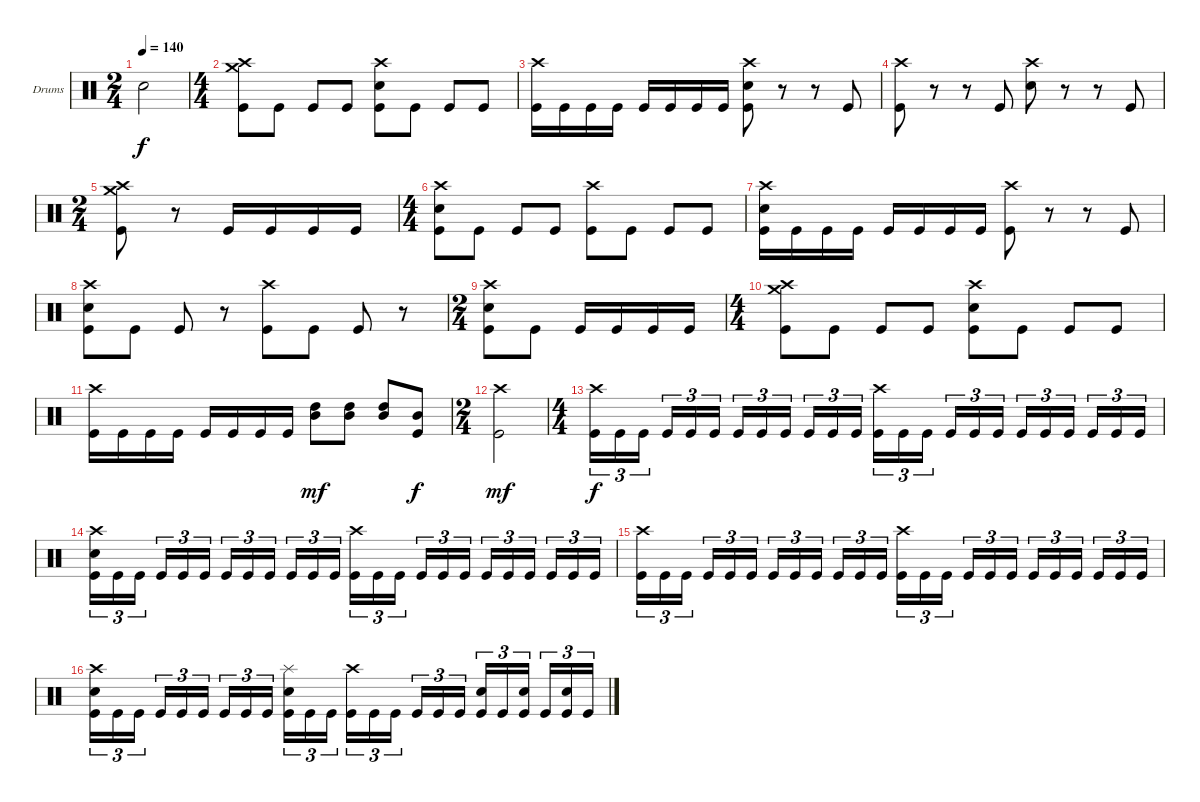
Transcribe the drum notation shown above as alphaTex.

\bracketExtendMode groupsimilarinstruments
\firstSystemTrackNameOrientation horizontal
\otherSystemsTrackNameOrientation horizontal
\track ("Drumkit" "Drums") {instrument percussion}
\staff {score}
\articulation defaults
\ts (2 4)
\beaming (8 2 2 2 2)
\tempo 140
\clef neutral
\ks c "Snare (hit) 2".2{dy f}
|
\ts (4 4)
\beaming (8 2 2 2 2)
("Kick (hit)" "Crash medium (hit)" "Crash high (hit)").8 "Kick (hit)".8 "Kick (hit)".8 "Kick (hit)".8 ("Kick (hit)" "Snare (hit) 2" "Crash high (hit)").8 "Kick (hit)".8 "Kick (hit)".8 "Kick (hit)".8 |
("Kick (hit)" "Crash high (hit)").16 "Kick (hit)".16 "Kick (hit)".16 "Kick (hit)".16 "Kick (hit)".16 "Kick (hit)".16 "Kick (hit)".16 "Kick (hit)".16 ("Kick (hit)" "Snare (hit) 2" "Crash high (hit)").8 r.8 r.8 "Kick (hit)".8 |
("Kick (hit)" "Crash high (hit)").8 r.8 r.8 "Kick (hit)".8 ("Snare (hit) 2" "Crash high (hit)").8 r.8 r.8 "Kick (hit)".8 |
\ts (2 4)
\beaming (8 2 2 2 2)
("Kick (hit)" "Crash medium (hit)" "Crash high (hit)").8 r.8 "Kick (hit)".16 "Kick (hit)".16 "Kick (hit)".16 "Kick (hit)".16 |
\ts (4 4)
\beaming (8 2 2 2 2)
("Kick (hit)" "Crash high (hit)" "Snare (hit) 2").8 "Kick (hit)".8 "Kick (hit)".8 "Kick (hit)".8 ("Kick (hit)" "Crash high (hit)").8 "Kick (hit)".8 "Kick (hit)".8 "Kick (hit)".8 |
("Kick (hit)" "Snare (hit) 2" "Crash high (hit)").16 "Kick (hit)".16 "Kick (hit)".16 "Kick (hit)".16 "Kick (hit)".16 "Kick (hit)".16 "Kick (hit)".16 "Kick (hit)".16 ("Kick (hit)" "Crash high (hit)").8 r.8 r.8 "Kick (hit)".8 |
("Kick (hit)" "Snare (hit) 2" "Crash high (hit)").8 "Kick (hit)".8 "Kick (hit)".8 r.8 ("Kick (hit)" "Crash high (hit)").8 "Kick (hit)".8 "Kick (hit)".8 r.8 |
\ts (2 4)
\beaming (8 2 2 2 2)
("Kick (hit)" "Snare (hit) 2" "Crash high (hit)").8 "Kick (hit)".8 "Kick (hit)".16 "Kick (hit)".16 "Kick (hit)".16 "Kick (hit)".16 |
\ts (4 4)
\beaming (8 2 2 2 2)
("Kick (hit)" "Crash medium (hit)" "Crash high (hit)").8 "Kick (hit)".8 "Kick (hit)".8 "Kick (hit)".8 ("Kick (hit)" "Snare (hit) 2" "Crash high (hit)").8 "Kick (hit)".8 "Kick (hit)".8 "Kick (hit)".8 |
("Kick (hit)" "Crash high (hit)").16 "Kick (hit)".16 "Kick (hit)".16 "Kick (hit)".16 "Kick (hit)".16 "Kick (hit)".16 "Kick (hit)".16 "Kick (hit)".16 ("Mid Tom (hit)" "High Tom (hit)").8{dy mf} ("Mid Tom (hit)" "High Tom (hit)").8 ("Mid Tom (hit)" "High Tom (hit)").8 ("Kick (hit)" "Mid Tom (hit)").8{dy f} |
\ts (2 4)
\beaming (8 2 2 2 2)
("Kick (hit)" "Crash high (hit)").2{dy mf} |
\ts (4 4)
\beaming (8 2 2 2 2)
("Kick (hit)" "Crash high (hit)").16{tu (3 2) dy f} "Kick (hit)".16{tu (3 2)} "Kick (hit)".16{tu (3 2)} "Kick (hit)".16{tu (3 2)} "Kick (hit)".16{tu (3 2)} "Kick (hit)".16{tu (3 2)} "Kick (hit)".16{tu (3 2)} "Kick (hit)".16{tu (3 2)} "Kick (hit)".16{tu (3 2)} "Kick (hit)".16{tu (3 2)} "Kick (hit)".16{tu (3 2)} "Kick (hit)".16{tu (3 2)} ("Kick (hit)" "Crash high (hit)").16{tu (3 2)} "Kick (hit)".16{tu (3 2)} "Kick (hit)".16{tu (3 2)} "Kick (hit)".16{tu (3 2)} "Kick (hit)".16{tu (3 2)} "Kick (hit)".16{tu (3 2)} "Kick (hit)".16{tu (3 2)} "Kick (hit)".16{tu (3 2)} "Kick (hit)".16{tu (3 2)} "Kick (hit)".16{tu (3 2)} "Kick (hit)".16{tu (3 2)} "Kick (hit)".16{tu (3 2)} |
("Kick (hit)" "Snare (hit) 2" "Crash high (hit)").16{tu (3 2)} "Kick (hit)".16{tu (3 2)} "Kick (hit)".16{tu (3 2)} "Kick (hit)".16{tu (3 2)} "Kick (hit)".16{tu (3 2)} "Kick (hit)".16{tu (3 2)} "Kick (hit)".16{tu (3 2)} "Kick (hit)".16{tu (3 2)} "Kick (hit)".16{tu (3 2)} "Kick (hit)".16{tu (3 2)} "Kick (hit)".16{tu (3 2)} "Kick (hit)".16{tu (3 2)} ("Kick (hit)" "Crash high (hit)").16{tu (3 2)} "Kick (hit)".16{tu (3 2)} "Kick (hit)".16{tu (3 2)} "Kick (hit)".16{tu (3 2)} "Kick (hit)".16{tu (3 2)} "Kick (hit)".16{tu (3 2)} "Kick (hit)".16{tu (3 2)} "Kick (hit)".16{tu (3 2)} "Kick (hit)".16{tu (3 2)} "Kick (hit)".16{tu (3 2)} "Kick (hit)".16{tu (3 2)} "Kick (hit)".16{tu (3 2)} |
("Kick (hit)" "Crash high (hit)").16{tu (3 2)} "Kick (hit)".16{tu (3 2)} "Kick (hit)".16{tu (3 2)} "Kick (hit)".16{tu (3 2)} "Kick (hit)".16{tu (3 2)} "Kick (hit)".16{tu (3 2)} "Kick (hit)".16{tu (3 2)} "Kick (hit)".16{tu (3 2)} "Kick (hit)".16{tu (3 2)} "Kick (hit)".16{tu (3 2)} "Kick (hit)".16{tu (3 2)} "Kick (hit)".16{tu (3 2)} ("Kick (hit)" "Crash high (hit)").16{tu (3 2)} "Kick (hit)".16{tu (3 2)} "Kick (hit)".16{tu (3 2)} "Kick (hit)".16{tu (3 2)} "Kick (hit)".16{tu (3 2)} "Kick (hit)".16{tu (3 2)} "Kick (hit)".16{tu (3 2)} "Kick (hit)".16{tu (3 2)} "Kick (hit)".16{tu (3 2)} "Kick (hit)".16{tu (3 2)} "Kick (hit)".16{tu (3 2)} "Kick (hit)".16{tu (3 2)} |
("Kick (hit)" "Snare (hit) 2" "Crash high (hit)").16{tu (3 2)} "Kick (hit)".16{tu (3 2)} "Kick (hit)".16{tu (3 2)} "Kick (hit)".16{tu (3 2)} "Kick (hit)".16{tu (3 2)} "Kick (hit)".16{tu (3 2)} "Kick (hit)".16{tu (3 2)} "Kick (hit)".16{tu (3 2)} "Kick (hit)".16{tu (3 2)} ("Kick (hit)" "Splash (hit)" "Snare (hit) 2").16{tu (3 2)} "Kick (hit)".16{tu (3 2)} "Kick (hit)".16{tu (3 2)} ("Kick (hit)" "Crash high (hit)").16{tu (3 2)} "Kick (hit)".16{tu (3 2)} "Kick (hit)".16{tu (3 2)} "Kick (hit)".16{tu (3 2)} "Kick (hit)".16{tu (3 2)} "Kick (hit)".16{tu (3 2)} ("Kick (hit)" "Snare (hit) 2").16{tu (3 2)} "Kick (hit)".16{tu (3 2)} ("Kick (hit)" "Snare (hit) 2").16{tu (3 2)} "Kick (hit)".16{tu (3 2)} ("Kick (hit)" "Snare (hit) 2").16{tu (3 2)} "Kick (hit)".16{tu (3 2)}
